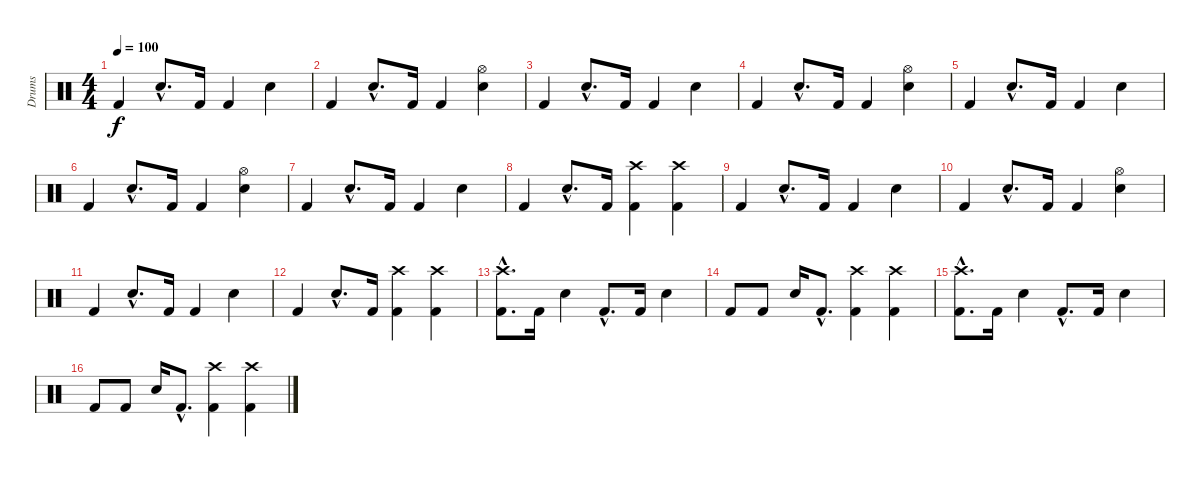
\track ("Drums" "Drums") {instrument percussion}
\staff {score}
\articulation defaults
\ts (4 4)
\tempo 100
\clef neutral
\ks c "Kick (hit) 2".4{dy f} "Electric Snare (hit)"{hac}.8{d} "Kick (hit) 2".16 "Kick (hit) 2".4 "Electric Snare (hit)".4
|
"Kick (hit) 2".4 "Electric Snare (hit)"{hac}.8{d} "Kick (hit) 2".16 "Kick (hit) 2".4 ("Hi-Hat (open)" "Electric Snare (hit)").4 |
"Kick (hit) 2".4 "Electric Snare (hit)"{hac}.8{d} "Kick (hit) 2".16 "Kick (hit) 2".4 "Electric Snare (hit)".4 |
"Kick (hit) 2".4 "Electric Snare (hit)"{hac}.8{d} "Kick (hit) 2".16 "Kick (hit) 2".4 ("Hi-Hat (open)" "Electric Snare (hit)").4 |
"Kick (hit) 2".4 "Electric Snare (hit)"{hac}.8{d} "Kick (hit) 2".16 "Kick (hit) 2".4 "Electric Snare (hit)".4 |
"Kick (hit) 2".4 "Electric Snare (hit)"{hac}.8{d} "Kick (hit) 2".16 "Kick (hit) 2".4 ("Hi-Hat (open)" "Electric Snare (hit)").4 |
"Kick (hit) 2".4 "Electric Snare (hit)"{hac}.8{d} "Kick (hit) 2".16 "Kick (hit) 2".4 "Electric Snare (hit)".4 |
"Kick (hit) 2".4 "Electric Snare (hit)"{hac}.8{d} "Kick (hit) 2".16 ("Crash high (hit)" "Kick (hit) 2").4 ("Crash high (hit)" "Kick (hit) 2").4 |
"Kick (hit) 2".4 "Electric Snare (hit)"{hac}.8{d} "Kick (hit) 2".16 "Kick (hit) 2".4 "Electric Snare (hit)".4 |
"Kick (hit) 2".4 "Electric Snare (hit)"{hac}.8{d} "Kick (hit) 2".16 "Kick (hit) 2".4 ("Hi-Hat (open)" "Electric Snare (hit)").4 |
"Kick (hit) 2".4 "Electric Snare (hit)"{hac}.8{d} "Kick (hit) 2".16 "Kick (hit) 2".4 "Electric Snare (hit)".4 |
"Kick (hit) 2".4 "Electric Snare (hit)"{hac}.8{d} "Kick (hit) 2".16 ("Crash high (hit)" "Kick (hit) 2").4 ("Crash high (hit)" "Kick (hit) 2").4 |
("Crash high (hit)"{hac} "Kick (hit) 2"{hac}).8{d} "Kick (hit) 2".16 "Electric Snare (hit)".4 "Kick (hit) 2"{hac}.8{d} "Kick (hit) 2".16 "Electric Snare (hit)".4 |
"Kick (hit) 2".8 "Kick (hit) 2".8 "Electric Snare (hit)".16 "Kick (hit) 2"{hac}.8{d} ("Crash high (hit)" "Kick (hit) 2").4 ("Crash high (hit)" "Kick (hit) 2").4 |
("Crash high (hit)"{hac} "Kick (hit) 2"{hac}).8{d} "Kick (hit) 2".16 "Electric Snare (hit)".4 "Kick (hit) 2"{hac}.8{d} "Kick (hit) 2".16 "Electric Snare (hit)".4 |
"Kick (hit) 2".8 "Kick (hit) 2".8 "Electric Snare (hit)".16 "Kick (hit) 2"{hac}.8{d} ("Crash high (hit)" "Kick (hit) 2").4 ("Crash high (hit)" "Kick (hit) 2").4
